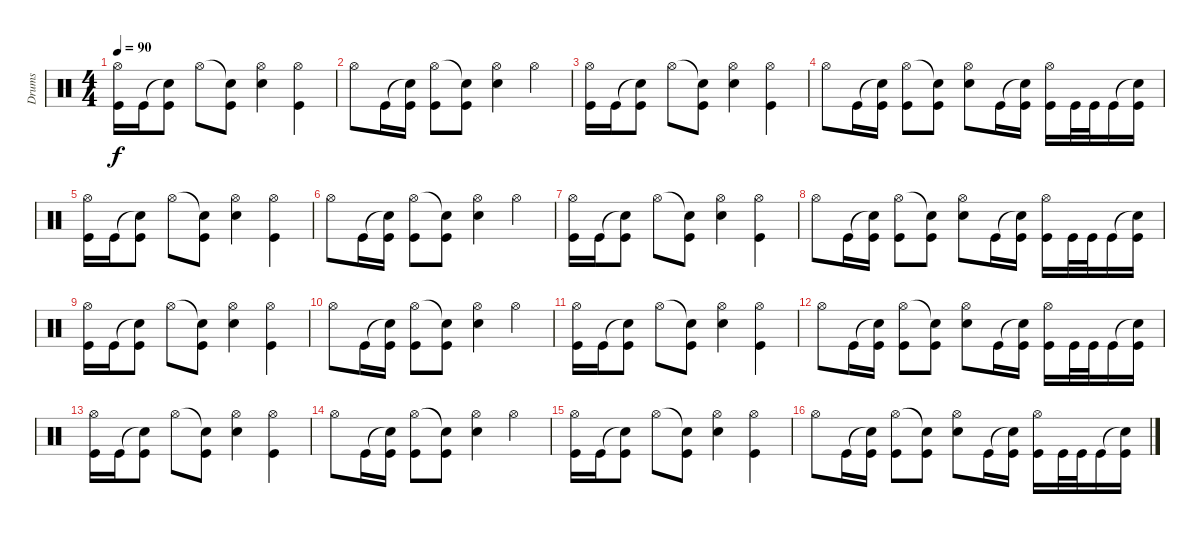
\track ("Drums" "Drums") {instrument percussion}
\staff {score}
\articulation defaults
\ts (4 4)
\tempo 90
\clef neutral
\ks c
("Hi-Hat (open)" "Kick (hit)").16{dy f} "Kick (hit)".16 ("Snare (hit)"{t} "Kick (hit)").8 "Hi-Hat (open)".8 ("Snare (hit)"{t} "Kick (hit)").8 ("Hi-Hat (open)" "Electric Snare (hit)").4 ("Hi-Hat (open)" "Kick (hit)").4 |
"Hi-Hat (open)".8 "Kick (hit)".16 ("Snare (hit)"{t} "Kick (hit)").16 ("Hi-Hat (open)" "Kick (hit)").8 ("Snare (hit)"{t} "Kick (hit)").8 ("Hi-Hat (open)" "Electric Snare (hit)").4 "Hi-Hat (open)".4 |
("Hi-Hat (open)" "Kick (hit)").16 "Kick (hit)".16 ("Snare (hit)"{t} "Kick (hit)").8 "Hi-Hat (open)".8 ("Snare (hit)"{t} "Kick (hit)").8 ("Hi-Hat (open)" "Electric Snare (hit)").4 ("Hi-Hat (open)" "Kick (hit)").4 |
"Hi-Hat (open)".8 "Kick (hit)".16 ("Snare (hit)"{t} "Kick (hit)").16 ("Hi-Hat (open)" "Kick (hit)").8 ("Snare (hit)"{t} "Kick (hit)").8 ("Hi-Hat (open)" "Electric Snare (hit)").8 "Kick (hit)".16 ("Snare (hit)"{t} "Kick (hit)").16 ("Hi-Hat (open)" "Kick (hit)").16 "Kick (hit)".32 "Kick (hit)".32 "Kick (hit)".16 ("Snare (hit)"{t} "Kick (hit)").16 |
("Hi-Hat (open)" "Kick (hit)").16 "Kick (hit)".16 ("Snare (hit)"{t} "Kick (hit)").8 "Hi-Hat (open)".8 ("Snare (hit)"{t} "Kick (hit)").8 ("Hi-Hat (open)" "Electric Snare (hit)").4 ("Hi-Hat (open)" "Kick (hit)").4 |
"Hi-Hat (open)".8 "Kick (hit)".16 ("Snare (hit)"{t} "Kick (hit)").16 ("Hi-Hat (open)" "Kick (hit)").8 ("Snare (hit)"{t} "Kick (hit)").8 ("Hi-Hat (open)" "Electric Snare (hit)").4 "Hi-Hat (open)".4 |
("Hi-Hat (open)" "Kick (hit)").16 "Kick (hit)".16 ("Snare (hit)"{t} "Kick (hit)").8 "Hi-Hat (open)".8 ("Snare (hit)"{t} "Kick (hit)").8 ("Hi-Hat (open)" "Electric Snare (hit)").4 ("Hi-Hat (open)" "Kick (hit)").4 |
"Hi-Hat (open)".8 "Kick (hit)".16 ("Snare (hit)"{t} "Kick (hit)").16 ("Hi-Hat (open)" "Kick (hit)").8 ("Snare (hit)"{t} "Kick (hit)").8 ("Hi-Hat (open)" "Electric Snare (hit)").8 "Kick (hit)".16 ("Snare (hit)"{t} "Kick (hit)").16 ("Hi-Hat (open)" "Kick (hit)").16 "Kick (hit)".32 "Kick (hit)".32 "Kick (hit)".16 ("Snare (hit)"{t} "Kick (hit)").16 |
("Hi-Hat (open)" "Kick (hit)").16 "Kick (hit)".16 ("Snare (hit)"{t} "Kick (hit)").8 "Hi-Hat (open)".8 ("Snare (hit)"{t} "Kick (hit)").8 ("Hi-Hat (open)" "Electric Snare (hit)").4 ("Hi-Hat (open)" "Kick (hit)").4 |
"Hi-Hat (open)".8 "Kick (hit)".16 ("Snare (hit)"{t} "Kick (hit)").16 ("Hi-Hat (open)" "Kick (hit)").8 ("Snare (hit)"{t} "Kick (hit)").8 ("Hi-Hat (open)" "Electric Snare (hit)").4 "Hi-Hat (open)".4 |
("Hi-Hat (open)" "Kick (hit)").16 "Kick (hit)".16 ("Snare (hit)"{t} "Kick (hit)").8 "Hi-Hat (open)".8 ("Snare (hit)"{t} "Kick (hit)").8 ("Hi-Hat (open)" "Electric Snare (hit)").4 ("Hi-Hat (open)" "Kick (hit)").4 |
"Hi-Hat (open)".8 "Kick (hit)".16 ("Snare (hit)"{t} "Kick (hit)").16 ("Hi-Hat (open)" "Kick (hit)").8 ("Snare (hit)"{t} "Kick (hit)").8 ("Hi-Hat (open)" "Electric Snare (hit)").8 "Kick (hit)".16 ("Snare (hit)"{t} "Kick (hit)").16 ("Hi-Hat (open)" "Kick (hit)").16 "Kick (hit)".32 "Kick (hit)".32 "Kick (hit)".16 ("Snare (hit)"{t} "Kick (hit)").16 |
("Hi-Hat (open)" "Kick (hit)").16 "Kick (hit)".16 ("Snare (hit)"{t} "Kick (hit)").8 "Hi-Hat (open)".8 ("Snare (hit)"{t} "Kick (hit)").8 ("Hi-Hat (open)" "Electric Snare (hit)").4 ("Hi-Hat (open)" "Kick (hit)").4 |
"Hi-Hat (open)".8 "Kick (hit)".16 ("Snare (hit)"{t} "Kick (hit)").16 ("Hi-Hat (open)" "Kick (hit)").8 ("Snare (hit)"{t} "Kick (hit)").8 ("Hi-Hat (open)" "Electric Snare (hit)").4 "Hi-Hat (open)".4 |
("Hi-Hat (open)" "Kick (hit)").16 "Kick (hit)".16 ("Snare (hit)"{t} "Kick (hit)").8 "Hi-Hat (open)".8 ("Snare (hit)"{t} "Kick (hit)").8 ("Hi-Hat (open)" "Electric Snare (hit)").4 ("Hi-Hat (open)" "Kick (hit)").4 |
"Hi-Hat (open)".8 "Kick (hit)".16 ("Snare (hit)"{t} "Kick (hit)").16 ("Hi-Hat (open)" "Kick (hit)").8 ("Snare (hit)"{t} "Kick (hit)").8 ("Hi-Hat (open)" "Electric Snare (hit)").8 "Kick (hit)".16 ("Snare (hit)"{t} "Kick (hit)").16 ("Hi-Hat (open)" "Kick (hit)").16 "Kick (hit)".32 "Kick (hit)".32 "Kick (hit)".16 ("Snare (hit)"{t} "Kick (hit)").16
